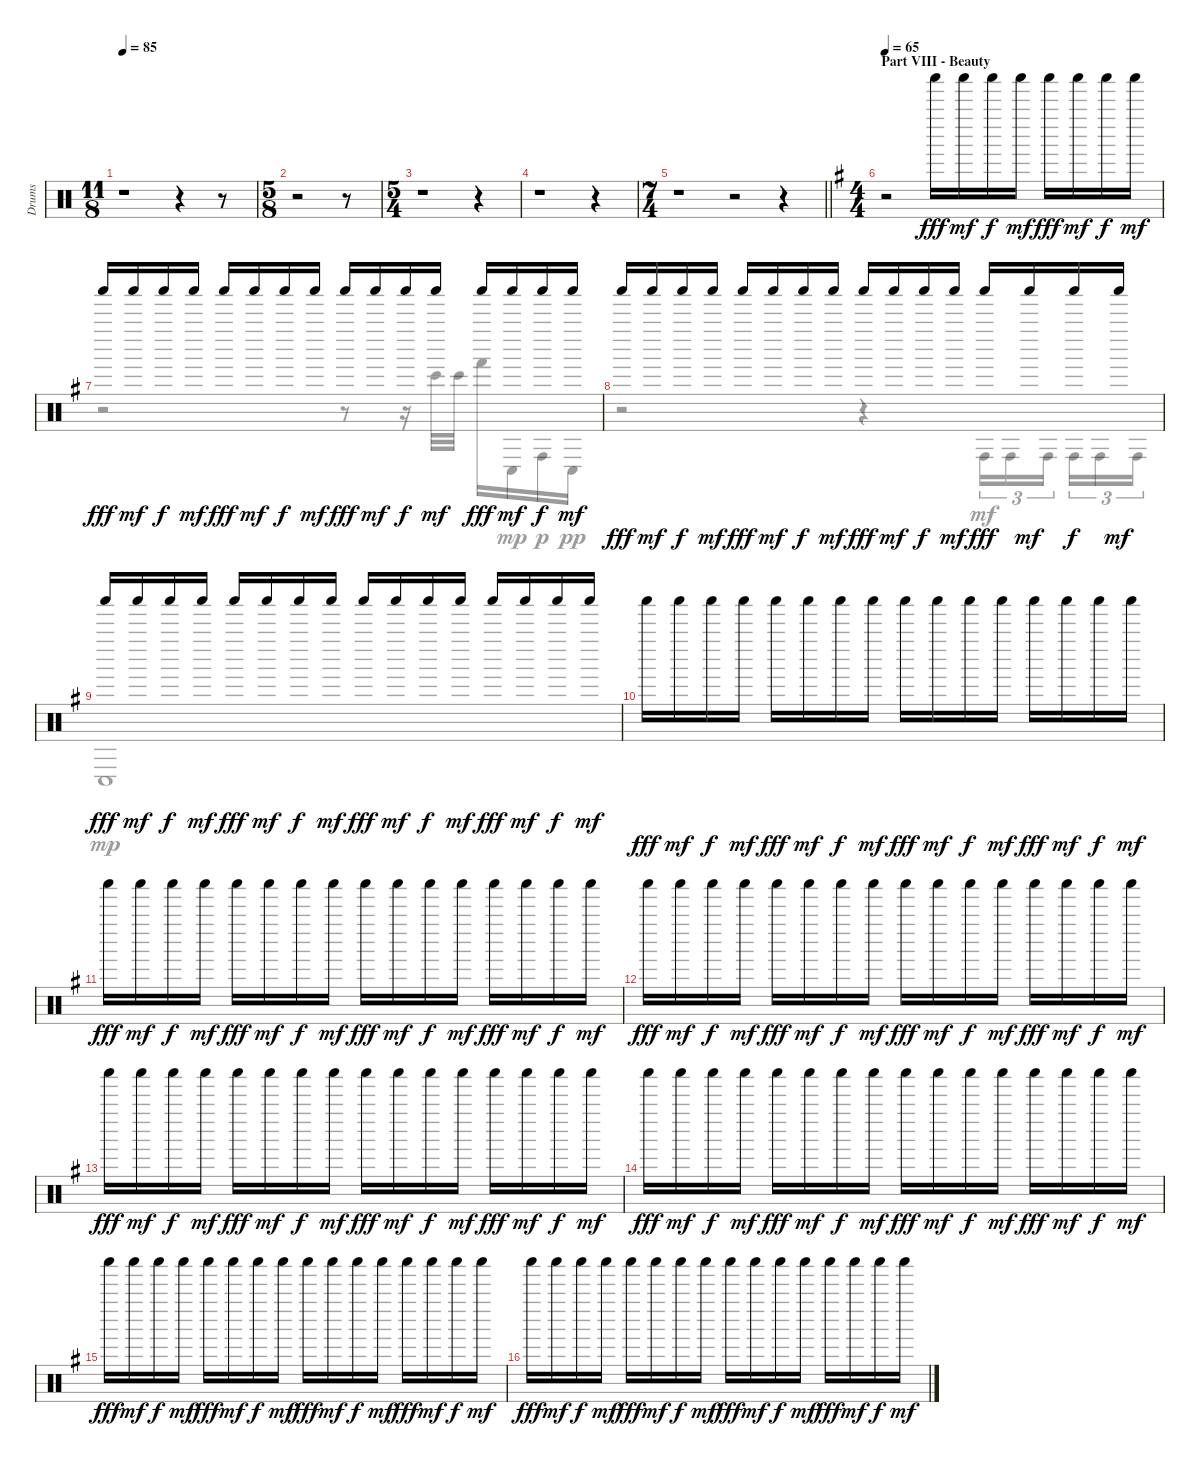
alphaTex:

\track ("Drums" "Drums") {instrument percussion}
\staff {score}
\articulation defaults
\voice
\ts (11 8)
\tempo 85
\clef neutral
\ks aminor
r.1{dy fff} r.4 r.8 |
\ts (5 8)
r.2 r.8 |
\ts (5 4)
r.1 r.4 |
r.1 r.4 |
\ts (7 4)
\barLineRight lightlight
r.1 r.2 r.4 |
\ts (4 4)
\section ("" "Part VIII - Beauty")
\tempo 65
\ks eminor
r.2{volume 0} "Shaker (hit)".16{volume 9} "Shaker (hit)".16{dy mf} "Shaker (hit)".16{dy f} "Shaker (hit)".16{dy mf} "Shaker (hit)".16{dy fff} "Shaker (hit)".16{dy mf} "Shaker (hit)".16{dy f} "Shaker (hit)".16{dy mf} |
"Shaker (hit)".16{dy fff} "Shaker (hit)".16{dy mf} "Shaker (hit)".16{dy f} "Shaker (hit)".16{dy mf} "Shaker (hit)".16{dy fff} "Shaker (hit)".16{dy mf} "Shaker (hit)".16{dy f} "Shaker (hit)".16{dy mf} "Shaker (hit)".16{dy fff} "Shaker (hit)".16{dy mf} "Shaker (hit)".16{dy f} "Shaker (hit)".16{dy mf} "Shaker (hit)".16{dy fff} "Shaker (hit)".16{dy mf} "Shaker (hit)".16{dy f} "Shaker (hit)".16{dy mf} |
"Shaker (hit)".16{dy fff} "Shaker (hit)".16{dy mf} "Shaker (hit)".16{dy f} "Shaker (hit)".16{dy mf} "Shaker (hit)".16{dy fff} "Shaker (hit)".16{dy mf} "Shaker (hit)".16{dy f} "Shaker (hit)".16{dy mf} "Shaker (hit)".16{dy fff} "Shaker (hit)".16{dy mf} "Shaker (hit)".16{dy f} "Shaker (hit)".16{dy mf} "Shaker (hit)".16{dy fff} "Shaker (hit)".16{dy mf} "Shaker (hit)".16{dy f} "Shaker (hit)".16{dy mf} |
"Shaker (hit)".16{dy fff} "Shaker (hit)".16{dy mf} "Shaker (hit)".16{dy f} "Shaker (hit)".16{dy mf} "Shaker (hit)".16{dy fff} "Shaker (hit)".16{dy mf} "Shaker (hit)".16{dy f} "Shaker (hit)".16{dy mf} "Shaker (hit)".16{dy fff} "Shaker (hit)".16{dy mf} "Shaker (hit)".16{dy f} "Shaker (hit)".16{dy mf} "Shaker (hit)".16{dy fff} "Shaker (hit)".16{dy mf} "Shaker (hit)".16{dy f} "Shaker (hit)".16{dy mf} |
"Shaker (hit)".16{dy fff} "Shaker (hit)".16{dy mf} "Shaker (hit)".16{dy f} "Shaker (hit)".16{dy mf} "Shaker (hit)".16{dy fff} "Shaker (hit)".16{dy mf} "Shaker (hit)".16{dy f} "Shaker (hit)".16{dy mf} "Shaker (hit)".16{dy fff} "Shaker (hit)".16{dy mf} "Shaker (hit)".16{dy f} "Shaker (hit)".16{dy mf} "Shaker (hit)".16{dy fff} "Shaker (hit)".16{dy mf} "Shaker (hit)".16{dy f} "Shaker (hit)".16{dy mf} |
"Shaker (hit)".16{dy fff} "Shaker (hit)".16{dy mf} "Shaker (hit)".16{dy f} "Shaker (hit)".16{dy mf} "Shaker (hit)".16{dy fff} "Shaker (hit)".16{dy mf} "Shaker (hit)".16{dy f} "Shaker (hit)".16{dy mf} "Shaker (hit)".16{dy fff} "Shaker (hit)".16{dy mf} "Shaker (hit)".16{dy f} "Shaker (hit)".16{dy mf} "Shaker (hit)".16{dy fff} "Shaker (hit)".16{dy mf} "Shaker (hit)".16{dy f} "Shaker (hit)".16{dy mf} |
"Shaker (hit)".16{dy fff} "Shaker (hit)".16{dy mf} "Shaker (hit)".16{dy f} "Shaker (hit)".16{dy mf} "Shaker (hit)".16{dy fff} "Shaker (hit)".16{dy mf} "Shaker (hit)".16{dy f} "Shaker (hit)".16{dy mf} "Shaker (hit)".16{dy fff} "Shaker (hit)".16{dy mf} "Shaker (hit)".16{dy f} "Shaker (hit)".16{dy mf} "Shaker (hit)".16{dy fff} "Shaker (hit)".16{dy mf} "Shaker (hit)".16{dy f} "Shaker (hit)".16{dy mf} |
"Shaker (hit)".16{dy fff} "Shaker (hit)".16{dy mf} "Shaker (hit)".16{dy f} "Shaker (hit)".16{dy mf} "Shaker (hit)".16{dy fff} "Shaker (hit)".16{dy mf} "Shaker (hit)".16{dy f} "Shaker (hit)".16{dy mf} "Shaker (hit)".16{dy fff} "Shaker (hit)".16{dy mf} "Shaker (hit)".16{dy f} "Shaker (hit)".16{dy mf} "Shaker (hit)".16{dy fff} "Shaker (hit)".16{dy mf} "Shaker (hit)".16{dy f} "Shaker (hit)".16{dy mf} |
"Shaker (hit)".16{dy fff} "Shaker (hit)".16{dy mf} "Shaker (hit)".16{dy f} "Shaker (hit)".16{dy mf} "Shaker (hit)".16{dy fff} "Shaker (hit)".16{dy mf} "Shaker (hit)".16{dy f} "Shaker (hit)".16{dy mf} "Shaker (hit)".16{dy fff} "Shaker (hit)".16{dy mf} "Shaker (hit)".16{dy f} "Shaker (hit)".16{dy mf} "Shaker (hit)".16{dy fff} "Shaker (hit)".16{dy mf} "Shaker (hit)".16{dy f} "Shaker (hit)".16{dy mf} |
"Shaker (hit)".16{dy fff} "Shaker (hit)".16{dy mf} "Shaker (hit)".16{dy f} "Shaker (hit)".16{dy mf} "Shaker (hit)".16{dy fff} "Shaker (hit)".16{dy mf} "Shaker (hit)".16{dy f} "Shaker (hit)".16{dy mf} "Shaker (hit)".16{dy fff} "Shaker (hit)".16{dy mf} "Shaker (hit)".16{dy f} "Shaker (hit)".16{dy mf} "Shaker (hit)".16{dy fff} "Shaker (hit)".16{dy mf} "Shaker (hit)".16{dy f} "Shaker (hit)".16{dy mf} |
"Shaker (hit)".16{dy fff} "Shaker (hit)".16{dy mf} "Shaker (hit)".16{dy f} "Shaker (hit)".16{dy mf} "Shaker (hit)".16{dy fff} "Shaker (hit)".16{dy mf} "Shaker (hit)".16{dy f} "Shaker (hit)".16{dy mf} "Shaker (hit)".16{dy fff} "Shaker (hit)".16{dy mf} "Shaker (hit)".16{dy f} "Shaker (hit)".16{dy mf} "Shaker (hit)".16{dy fff} "Shaker (hit)".16{dy mf} "Shaker (hit)".16{dy f} "Shaker (hit)".16{dy mf}
\voice
\clef neutral
\ottava regular
\simile none
\ks aminor
|
|
|
|
\barLineRight lightlight
|
\ks eminor
|
r.2 r.8 r.16 "Bongo High (hit)".32{dy mf} "Bongo High (hit)".32 "Hand (hit)".16 "Conga low (hit)".16{dy mp} "Conga high (hit)".16{dy p} "Conga low (hit)".16{dy pp} |
r.2 r.4 "Conga high (hit)".16{tu (3 2) dy mf} "Conga high (hit)".16{tu (3 2)} "Conga high (hit)".16{tu (3 2) beam splitsecondary} "Conga high (hit)".16{tu (3 2)} "Conga high (hit)".16{tu (3 2)} "Conga high (hit)".16{tu (3 2)} |
"Conga low (hit)".1{dy mp} |
|
|
|
|
|
|
